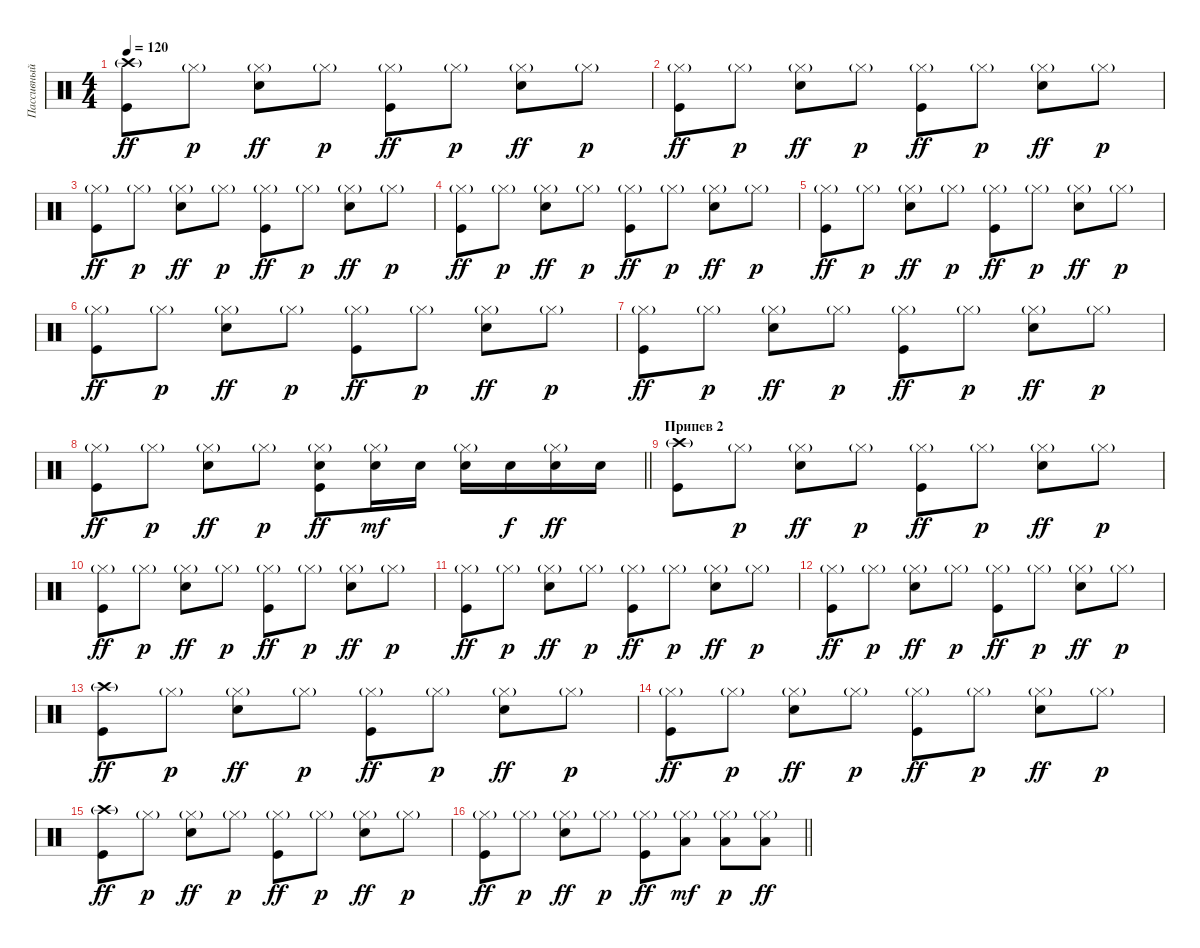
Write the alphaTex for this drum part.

\track ("Пассивный ударник" "Пассивный ") {instrument percussion}
\staff {score}
\articulation defaults
\ts (4 4)
\tempo 120
\clef neutral
\ks c
("Crash high (hit)"{g} "Kick (hit)").8{dy ff} "Hi-Hat (closed)"{g}.8{dy p} ("Hi-Hat (closed)"{g} "Electric Snare (hit)").8{dy ff} "Hi-Hat (closed)"{g}.8{dy p} ("Hi-Hat (closed)"{g} "Kick (hit)").8{dy ff} "Hi-Hat (closed)"{g}.8{dy p} ("Hi-Hat (closed)"{g} "Electric Snare (hit)").8{dy ff} "Hi-Hat (closed)"{g}.8{dy p} |
("Hi-Hat (closed)"{g} "Kick (hit)").8{dy ff} "Hi-Hat (closed)"{g}.8{dy p} ("Hi-Hat (closed)"{g} "Electric Snare (hit)").8{dy ff} "Hi-Hat (closed)"{g}.8{dy p} ("Hi-Hat (closed)"{g} "Kick (hit)").8{dy ff} "Hi-Hat (closed)"{g}.8{dy p} ("Hi-Hat (closed)"{g} "Electric Snare (hit)").8{dy ff} "Hi-Hat (closed)"{g}.8{dy p} |
("Hi-Hat (closed)"{g} "Kick (hit)").8{dy ff} "Hi-Hat (closed)"{g}.8{dy p} ("Hi-Hat (closed)"{g} "Electric Snare (hit)").8{dy ff} "Hi-Hat (closed)"{g}.8{dy p} ("Hi-Hat (closed)"{g} "Kick (hit)").8{dy ff} "Hi-Hat (closed)"{g}.8{dy p} ("Hi-Hat (closed)"{g} "Electric Snare (hit)").8{dy ff} "Hi-Hat (closed)"{g}.8{dy p} |
("Hi-Hat (closed)"{g} "Kick (hit)").8{dy ff} "Hi-Hat (closed)"{g}.8{dy p} ("Hi-Hat (closed)"{g} "Electric Snare (hit)").8{dy ff} "Hi-Hat (closed)"{g}.8{dy p} ("Hi-Hat (closed)"{g} "Kick (hit)").8{dy ff} "Hi-Hat (closed)"{g}.8{dy p} ("Hi-Hat (closed)"{g} "Electric Snare (hit)").8{dy ff} "Hi-Hat (closed)"{g}.8{dy p} |
("Hi-Hat (closed)"{g} "Kick (hit)").8{dy ff} "Hi-Hat (closed)"{g}.8{dy p} ("Hi-Hat (closed)"{g} "Electric Snare (hit)").8{dy ff} "Hi-Hat (closed)"{g}.8{dy p} ("Hi-Hat (closed)"{g} "Kick (hit)").8{dy ff} "Hi-Hat (closed)"{g}.8{dy p} ("Hi-Hat (closed)"{g} "Electric Snare (hit)").8{dy ff} "Hi-Hat (closed)"{g}.8{dy p} |
("Hi-Hat (closed)"{g} "Kick (hit)").8{dy ff} "Hi-Hat (closed)"{g}.8{dy p} ("Hi-Hat (closed)"{g} "Electric Snare (hit)").8{dy ff} "Hi-Hat (closed)"{g}.8{dy p} ("Hi-Hat (closed)"{g} "Kick (hit)").8{dy ff} "Hi-Hat (closed)"{g}.8{dy p} ("Hi-Hat (closed)"{g} "Electric Snare (hit)").8{dy ff} "Hi-Hat (closed)"{g}.8{dy p} |
("Hi-Hat (closed)"{g} "Kick (hit)").8{dy ff} "Hi-Hat (closed)"{g}.8{dy p} ("Hi-Hat (closed)"{g} "Electric Snare (hit)").8{dy ff} "Hi-Hat (closed)"{g}.8{dy p} ("Hi-Hat (closed)"{g} "Kick (hit)").8{dy ff} "Hi-Hat (closed)"{g}.8{dy p} ("Hi-Hat (closed)"{g} "Electric Snare (hit)").8{dy ff} "Hi-Hat (closed)"{g}.8{dy p} |
\barLineRight lightlight
("Hi-Hat (closed)"{g} "Kick (hit)").8{dy ff} "Hi-Hat (closed)"{g}.8{dy p} ("Hi-Hat (closed)"{g} "Electric Snare (hit)").8{dy ff} "Hi-Hat (closed)"{g}.8{dy p} ("Hi-Hat (closed)"{g} "Electric Snare (hit)" "Kick (hit)").8{dy ff} ("Hi-Hat (closed)"{g} "Electric Snare (hit)").16{dy mf} "Electric Snare (hit)".16 ("Hi-Hat (closed)"{g} "Electric Snare (hit)").16 "Electric Snare (hit)".16{dy f} ("Hi-Hat (closed)"{g} "Electric Snare (hit)").16{dy ff} "Electric Snare (hit)".16 |
\section ("" "Припев 2")
("Crash high (hit)"{g} "Kick (hit)").8 "Hi-Hat (closed)"{g}.8{dy p} ("Hi-Hat (closed)"{g} "Electric Snare (hit)").8{dy ff} "Hi-Hat (closed)"{g}.8{dy p} ("Hi-Hat (closed)"{g} "Kick (hit)").8{dy ff} "Hi-Hat (closed)"{g}.8{dy p} ("Hi-Hat (closed)"{g} "Electric Snare (hit)").8{dy ff} "Hi-Hat (closed)"{g}.8{dy p} |
("Hi-Hat (closed)"{g} "Kick (hit)").8{dy ff} "Hi-Hat (closed)"{g}.8{dy p} ("Hi-Hat (closed)"{g} "Electric Snare (hit)").8{dy ff} "Hi-Hat (closed)"{g}.8{dy p} ("Hi-Hat (closed)"{g} "Kick (hit)").8{dy ff} "Hi-Hat (closed)"{g}.8{dy p} ("Hi-Hat (closed)"{g} "Electric Snare (hit)").8{dy ff} "Hi-Hat (closed)"{g}.8{dy p} |
("Hi-Hat (closed)"{g} "Kick (hit)").8{dy ff} "Hi-Hat (closed)"{g}.8{dy p} ("Hi-Hat (closed)"{g} "Electric Snare (hit)").8{dy ff} "Hi-Hat (closed)"{g}.8{dy p} ("Hi-Hat (closed)"{g} "Kick (hit)").8{dy ff} "Hi-Hat (closed)"{g}.8{dy p} ("Hi-Hat (closed)"{g} "Electric Snare (hit)").8{dy ff} "Hi-Hat (closed)"{g}.8{dy p} |
("Hi-Hat (closed)"{g} "Kick (hit)").8{dy ff} "Hi-Hat (closed)"{g}.8{dy p} ("Hi-Hat (closed)"{g} "Electric Snare (hit)").8{dy ff} "Hi-Hat (closed)"{g}.8{dy p} ("Hi-Hat (closed)"{g} "Kick (hit)").8{dy ff} "Hi-Hat (closed)"{g}.8{dy p} ("Hi-Hat (closed)"{g} "Electric Snare (hit)").8{dy ff} "Hi-Hat (closed)"{g}.8{dy p} |
("Crash high (hit)"{g} "Kick (hit)").8{dy ff} "Hi-Hat (closed)"{g}.8{dy p} ("Hi-Hat (closed)"{g} "Electric Snare (hit)").8{dy ff} "Hi-Hat (closed)"{g}.8{dy p} ("Hi-Hat (closed)"{g} "Kick (hit)").8{dy ff} "Hi-Hat (closed)"{g}.8{dy p} ("Hi-Hat (closed)"{g} "Electric Snare (hit)").8{dy ff} "Hi-Hat (closed)"{g}.8{dy p} |
("Hi-Hat (closed)"{g} "Kick (hit)").8{dy ff} "Hi-Hat (closed)"{g}.8{dy p} ("Hi-Hat (closed)"{g} "Electric Snare (hit)").8{dy ff} "Hi-Hat (closed)"{g}.8{dy p} ("Hi-Hat (closed)"{g} "Kick (hit)").8{dy ff} "Hi-Hat (closed)"{g}.8{dy p} ("Hi-Hat (closed)"{g} "Electric Snare (hit)").8{dy ff} "Hi-Hat (closed)"{g}.8{dy p} |
("Crash high (hit)"{g} "Kick (hit)").8{dy ff} "Hi-Hat (closed)"{g}.8{dy p} ("Hi-Hat (closed)"{g} "Electric Snare (hit)").8{dy ff} "Hi-Hat (closed)"{g}.8{dy p} ("Hi-Hat (closed)"{g} "Kick (hit)").8{dy ff} "Hi-Hat (closed)"{g}.8{dy p} ("Hi-Hat (closed)"{g} "Electric Snare (hit)").8{dy ff} "Hi-Hat (closed)"{g}.8{dy p} |
\barLineRight lightlight
("Hi-Hat (closed)"{g} "Kick (hit)").8{dy ff} "Hi-Hat (closed)"{g}.8{dy p} ("Hi-Hat (closed)"{g} "Electric Snare (hit)").8{dy ff} "Hi-Hat (closed)"{g}.8{dy p} ("Hi-Hat (closed)"{g} "Kick (hit)").8{dy ff} ("Hi-Hat (closed)"{g} "Low Tom (hit)").8{dy mf} ("Hi-Hat (closed)"{g} "Low Tom (hit)").8{dy p} ("Hi-Hat (closed)"{g} "Low Tom (hit)").8{dy ff}
